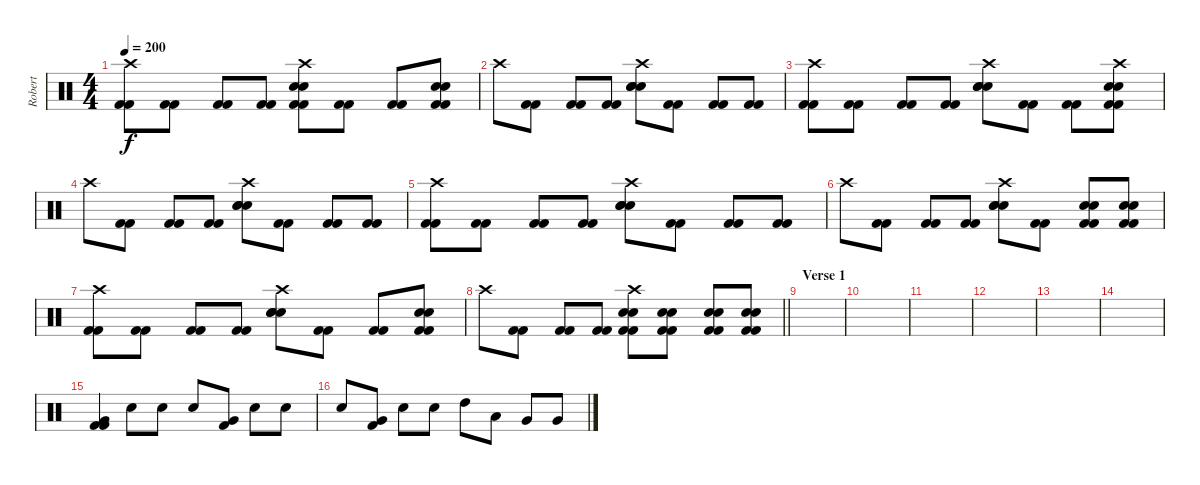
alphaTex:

\track ("Robert" "Robert") {instrument percussion}
\staff {score}
\articulation defaults
\ts (4 4)
\tempo 200
\clef neutral
\ks c
("Crash high (hit)" "Kick (hit) 2" "Kick (hit) 2").8{dy f} ("Kick (hit) 2" "Kick (hit) 2").8 ("Kick (hit) 2" "Kick (hit) 2").8 ("Kick (hit) 2" "Kick (hit) 2").8 ("Crash high (hit)" "Electric Snare (hit)" "Electric Snare (hit)" "Kick (hit) 2" "Kick (hit) 2").8 ("Kick (hit) 2" "Kick (hit) 2").8 ("Kick (hit) 2" "Kick (hit) 2").8 ("Electric Snare (hit)" "Electric Snare (hit)" "Kick (hit) 2" "Kick (hit) 2").8 |
"Crash high (hit)".8 ("Kick (hit) 2" "Kick (hit) 2").8 ("Kick (hit) 2" "Kick (hit) 2").8 ("Kick (hit) 2" "Kick (hit) 2").8 ("Crash high (hit)" "Electric Snare (hit)" "Electric Snare (hit)" "Electric Snare (hit)").8 ("Kick (hit) 2" "Kick (hit) 2").8 ("Kick (hit) 2" "Kick (hit) 2").8 ("Kick (hit) 2" "Kick (hit) 2").8 |
("Crash high (hit)" "Kick (hit) 2" "Kick (hit) 2").8 ("Kick (hit) 2" "Kick (hit) 2").8 ("Kick (hit) 2" "Kick (hit) 2").8 ("Kick (hit) 2" "Kick (hit) 2").8 ("Crash high (hit)" "Electric Snare (hit)" "Electric Snare (hit)" "Electric Snare (hit)").8 ("Kick (hit) 2" "Kick (hit) 2").8 ("Kick (hit) 2" "Kick (hit) 2").8 ("Crash high (hit)" "Electric Snare (hit)" "Electric Snare (hit)" "Kick (hit) 2" "Kick (hit) 2").8 |
"Crash high (hit)".8 ("Kick (hit) 2" "Kick (hit) 2").8 ("Kick (hit) 2" "Kick (hit) 2").8 ("Kick (hit) 2" "Kick (hit) 2").8 ("Crash high (hit)" "Electric Snare (hit)" "Electric Snare (hit)" "Electric Snare (hit)").8 ("Kick (hit) 2" "Kick (hit) 2").8 ("Kick (hit) 2" "Kick (hit) 2").8 ("Kick (hit) 2" "Kick (hit) 2").8 |
("Crash high (hit)" "Kick (hit) 2" "Kick (hit) 2").8 ("Kick (hit) 2" "Kick (hit) 2").8 ("Kick (hit) 2" "Kick (hit) 2").8 ("Kick (hit) 2" "Kick (hit) 2").8 ("Crash high (hit)" "Electric Snare (hit)" "Electric Snare (hit)" "Electric Snare (hit)").8 ("Kick (hit) 2" "Kick (hit) 2").8 ("Kick (hit) 2" "Kick (hit) 2").8 ("Kick (hit) 2" "Kick (hit) 2").8 |
"Crash high (hit)".8 ("Kick (hit) 2" "Kick (hit) 2").8 ("Kick (hit) 2" "Kick (hit) 2").8 ("Kick (hit) 2" "Kick (hit) 2").8 ("Crash high (hit)" "Electric Snare (hit)" "Electric Snare (hit)" "Electric Snare (hit)").8 ("Kick (hit) 2" "Kick (hit) 2").8 ("Electric Snare (hit)" "Electric Snare (hit)" "Kick (hit) 2" "Kick (hit) 2").8 ("Electric Snare (hit)" "Electric Snare (hit)" "Kick (hit) 2" "Kick (hit) 2").8 |
("Crash high (hit)" "Kick (hit) 2" "Kick (hit) 2").8 ("Kick (hit) 2" "Kick (hit) 2").8 ("Kick (hit) 2" "Kick (hit) 2").8 ("Kick (hit) 2" "Kick (hit) 2").8 ("Crash high (hit)" "Electric Snare (hit)" "Electric Snare (hit)" "Electric Snare (hit)").8 ("Kick (hit) 2" "Kick (hit) 2").8 ("Kick (hit) 2" "Kick (hit) 2").8 ("Electric Snare (hit)" "Electric Snare (hit)" "Kick (hit) 2" "Kick (hit) 2").8 |
\barLineRight lightlight "Crash high (hit)".8
("Kick (hit) 2" "Kick (hit) 2").8 ("Kick (hit) 2" "Kick (hit) 2").8 ("Kick (hit) 2" "Kick (hit) 2").8 ("Crash high (hit)" "Electric Snare (hit)" "Electric Snare (hit)" "Kick (hit) 2" "Kick (hit) 2").8 ("Electric Snare (hit)" "Electric Snare (hit)" "Kick (hit) 2" "Kick (hit) 2").8 ("Electric Snare (hit)" "Electric Snare (hit)" "Kick (hit) 2" "Kick (hit) 2").8 ("Electric Snare (hit)" "Electric Snare (hit)" "Kick (hit) 2" "Kick (hit) 2").8 |
\section ("" "Verse 1")
|
|
|
|
|
|
("Very Low Tom (hit)" "Kick (hit) 2" "Kick (hit) 2").4 "Electric Snare (hit)".8 "Electric Snare (hit)".8 "Electric Snare (hit)".8 ("Very Low Tom (hit)" "Kick (hit) 2").8 "Electric Snare (hit)".8 "Electric Snare (hit)".8 |
"Electric Snare (hit)".8 ("Very Low Tom (hit)" "Kick (hit) 2").8 "Electric Snare (hit)".8 "Electric Snare (hit)".8 "High Tom (hit)".8 "Low Tom (hit)".8 "Very Low Tom (hit)".8 "Very Low Tom (hit)".8
